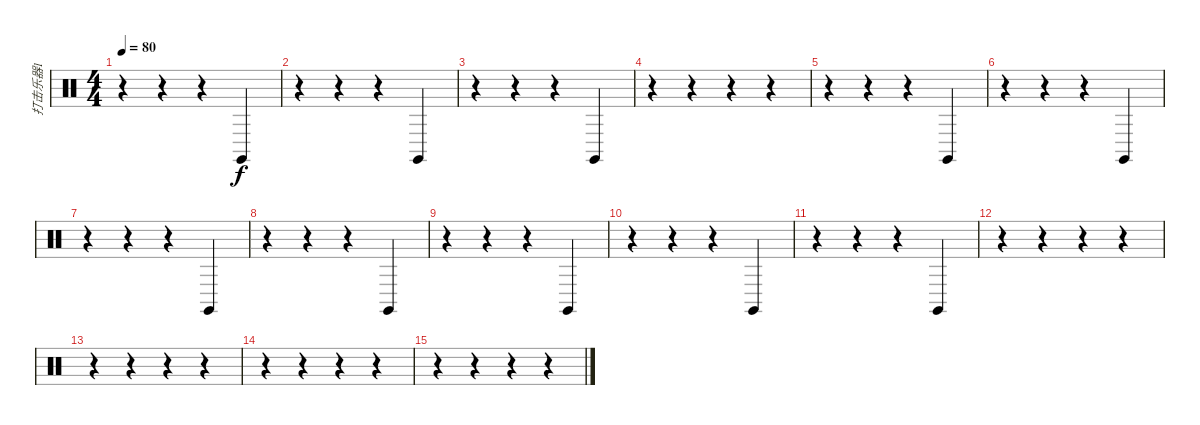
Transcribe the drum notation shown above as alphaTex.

\track ("打击乐器1" "打击乐器1") {instrument percussion}
\staff {score}
\articulation defaults
\ts (4 4)
\tempo 80
\clef neutral
\ks c
r.4{dy f} r.4 r.4 "Claves (hit)".4 |
r.4 r.4 r.4 "Claves (hit)".4 |
r.4 r.4 r.4 "Claves (hit)".4 |
r.4 r.4 r.4 r.4 |
r.4 r.4 r.4 "Claves (hit)".4 |
r.4 r.4 r.4 "Claves (hit)".4 |
r.4 r.4 r.4 "Claves (hit)".4 |
r.4 r.4 r.4 "Claves (hit)".4 |
r.4 r.4 r.4 "Claves (hit)".4 |
r.4 r.4 r.4 "Claves (hit)".4 |
r.4 r.4 r.4 "Claves (hit)".4 |
r.4 r.4 r.4 r.4 |
r.4 r.4 r.4 r.4 |
r.4 r.4 r.4 r.4 |
r.4 r.4 r.4 r.4
